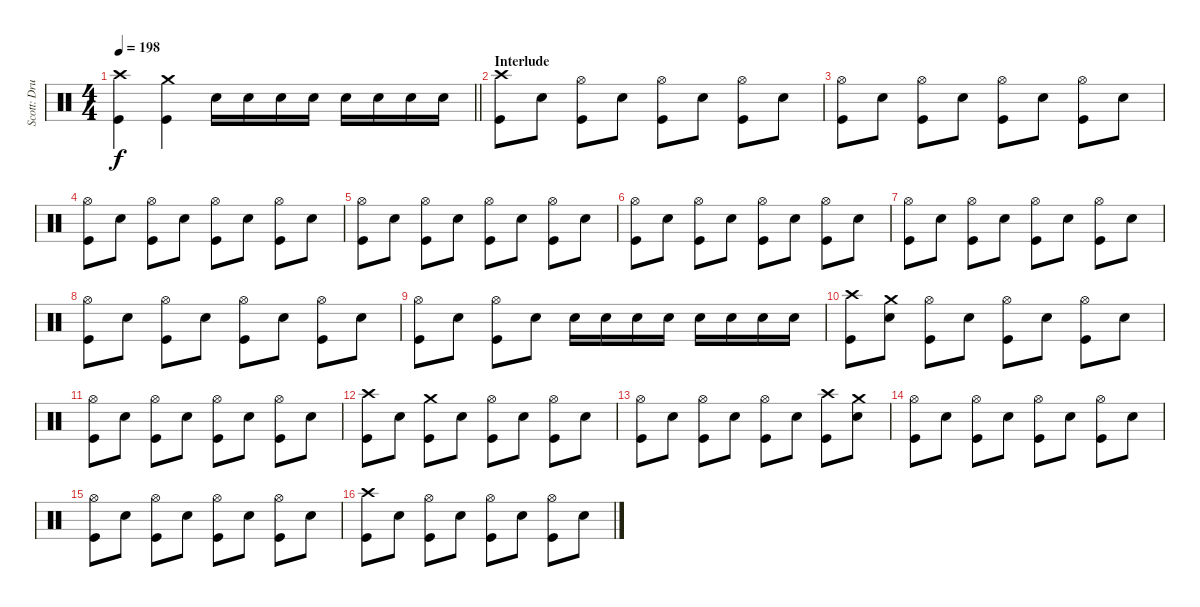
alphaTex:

\track ("Scott: Drums" "Scott: Dru") {instrument percussion}
\staff {score}
\articulation defaults
\ts (4 4)
\tempo 198
\clef neutral
\barLineRight lightlight
\ks c
("Crash high (hit)" "Kick (hit)").4{dy f} ("Crash medium (hit)" "Kick (hit)").4 "Electric Snare (hit)".16 "Electric Snare (hit)".16 "Electric Snare (hit)".16 "Electric Snare (hit)".16 "Electric Snare (hit)".16 "Electric Snare (hit)".16 "Electric Snare (hit)".16 "Electric Snare (hit)".16 |
\section ("" "Interlude")
("Crash high (hit)" "Kick (hit)").8 "Electric Snare (hit)".8 ("Hi-Hat (open)" "Kick (hit)").8 "Electric Snare (hit)".8 ("Hi-Hat (open)" "Kick (hit)").8 "Electric Snare (hit)".8 ("Hi-Hat (open)" "Kick (hit)").8 "Electric Snare (hit)".8 |
("Hi-Hat (open)" "Kick (hit)").8 "Electric Snare (hit)".8 ("Hi-Hat (open)" "Kick (hit)").8 "Electric Snare (hit)".8 ("Hi-Hat (open)" "Kick (hit)").8 "Electric Snare (hit)".8 ("Hi-Hat (open)" "Kick (hit)").8 "Electric Snare (hit)".8 |
("Hi-Hat (open)" "Kick (hit)").8 "Electric Snare (hit)".8 ("Hi-Hat (open)" "Kick (hit)").8 "Electric Snare (hit)".8 ("Hi-Hat (open)" "Kick (hit)").8 "Electric Snare (hit)".8 ("Hi-Hat (open)" "Kick (hit)").8 "Electric Snare (hit)".8 |
("Hi-Hat (open)" "Kick (hit)").8 "Electric Snare (hit)".8 ("Hi-Hat (open)" "Kick (hit)").8 "Electric Snare (hit)".8 ("Hi-Hat (open)" "Kick (hit)").8 "Electric Snare (hit)".8 ("Hi-Hat (open)" "Kick (hit)").8 "Electric Snare (hit)".8 |
("Hi-Hat (open)" "Kick (hit)").8 "Electric Snare (hit)".8 ("Hi-Hat (open)" "Kick (hit)").8 "Electric Snare (hit)".8 ("Hi-Hat (open)" "Kick (hit)").8 "Electric Snare (hit)".8 ("Hi-Hat (open)" "Kick (hit)").8 "Electric Snare (hit)".8 |
("Hi-Hat (open)" "Kick (hit)").8 "Electric Snare (hit)".8 ("Hi-Hat (open)" "Kick (hit)").8 "Electric Snare (hit)".8 ("Hi-Hat (open)" "Kick (hit)").8 "Electric Snare (hit)".8 ("Hi-Hat (open)" "Kick (hit)").8 "Electric Snare (hit)".8 |
("Hi-Hat (open)" "Kick (hit)").8 "Electric Snare (hit)".8 ("Hi-Hat (open)" "Kick (hit)").8 "Electric Snare (hit)".8 ("Hi-Hat (open)" "Kick (hit)").8 "Electric Snare (hit)".8 ("Hi-Hat (open)" "Kick (hit)").8 "Electric Snare (hit)".8 |
("Hi-Hat (open)" "Kick (hit)").8 "Electric Snare (hit)".8 ("Hi-Hat (open)" "Kick (hit)").8 "Electric Snare (hit)".8 "Electric Snare (hit)".16 "Electric Snare (hit)".16 "Electric Snare (hit)".16 "Electric Snare (hit)".16 "Electric Snare (hit)".16 "Electric Snare (hit)".16 "Electric Snare (hit)".16 "Electric Snare (hit)".16 |
("Crash high (hit)" "Kick (hit)").8 ("Crash medium (hit)" "Electric Snare (hit)").8 ("Hi-Hat (open)" "Kick (hit)").8 "Electric Snare (hit)".8 ("Hi-Hat (open)" "Kick (hit)").8 "Electric Snare (hit)".8 ("Hi-Hat (open)" "Kick (hit)").8 "Electric Snare (hit)".8 |
("Hi-Hat (open)" "Kick (hit)").8 "Electric Snare (hit)".8 ("Hi-Hat (open)" "Kick (hit)").8 "Electric Snare (hit)".8 ("Hi-Hat (open)" "Kick (hit)").8 "Electric Snare (hit)".8 ("Hi-Hat (open)" "Kick (hit)").8 "Electric Snare (hit)".8 |
("Crash high (hit)" "Kick (hit)").8 "Electric Snare (hit)".8 ("Crash medium (hit)" "Kick (hit)").8 "Electric Snare (hit)".8 ("Hi-Hat (open)" "Kick (hit)").8 "Electric Snare (hit)".8 ("Hi-Hat (open)" "Kick (hit)").8 "Electric Snare (hit)".8 |
("Hi-Hat (open)" "Kick (hit)").8 "Electric Snare (hit)".8 ("Hi-Hat (open)" "Kick (hit)").8 "Electric Snare (hit)".8 ("Hi-Hat (open)" "Kick (hit)").8 "Electric Snare (hit)".8 ("Crash high (hit)" "Kick (hit)").8 ("Crash medium (hit)" "Electric Snare (hit)").8 |
("Hi-Hat (open)" "Kick (hit)").8 "Electric Snare (hit)".8 ("Hi-Hat (open)" "Kick (hit)").8 "Electric Snare (hit)".8 ("Hi-Hat (open)" "Kick (hit)").8 "Electric Snare (hit)".8 ("Hi-Hat (open)" "Kick (hit)").8 "Electric Snare (hit)".8 |
("Hi-Hat (open)" "Kick (hit)").8 "Electric Snare (hit)".8 ("Hi-Hat (open)" "Kick (hit)").8 "Electric Snare (hit)".8 ("Hi-Hat (open)" "Kick (hit)").8 "Electric Snare (hit)".8 ("Hi-Hat (open)" "Kick (hit)").8 "Electric Snare (hit)".8 |
("Crash high (hit)" "Kick (hit)").8 "Electric Snare (hit)".8 ("Hi-Hat (open)" "Kick (hit)").8 "Electric Snare (hit)".8 ("Hi-Hat (open)" "Kick (hit)").8 "Electric Snare (hit)".8 ("Hi-Hat (open)" "Kick (hit)").8 "Electric Snare (hit)".8
